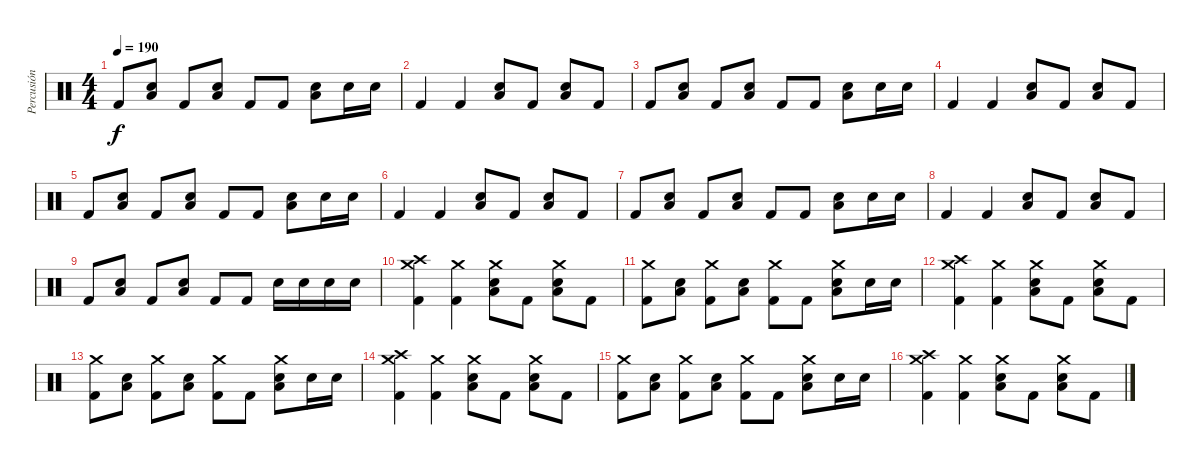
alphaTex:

\track ("Percusión" "Percusión") {instrument percussion}
\staff {score}
\articulation defaults
\ts (4 4)
\tempo 190
\clef neutral
\ks c "Kick (hit) 2".8{dy f}
("Low Tom (hit)" "Snare (hit) 2").8 "Kick (hit) 2".8 ("Low Tom (hit)" "Snare (hit) 2").8 "Kick (hit) 2".8 "Kick (hit) 2".8 ("Low Tom (hit)" "Snare (hit) 2").8 "Snare (hit) 2".16 "Snare (hit) 2".16 |
"Kick (hit) 2".4 "Kick (hit) 2".4 ("Low Tom (hit)" "Snare (hit) 2").8 "Kick (hit) 2".8 ("Low Tom (hit)" "Snare (hit) 2").8 "Kick (hit) 2".8 |
"Kick (hit) 2".8 ("Low Tom (hit)" "Snare (hit) 2").8 "Kick (hit) 2".8 ("Low Tom (hit)" "Snare (hit) 2").8 "Kick (hit) 2".8 "Kick (hit) 2".8 ("Low Tom (hit)" "Snare (hit) 2").8 "Snare (hit) 2".16 "Snare (hit) 2".16 |
"Kick (hit) 2".4 "Kick (hit) 2".4 ("Low Tom (hit)" "Snare (hit) 2").8 "Kick (hit) 2".8 ("Low Tom (hit)" "Snare (hit) 2").8 "Kick (hit) 2".8 |
"Kick (hit) 2".8 ("Low Tom (hit)" "Snare (hit) 2").8 "Kick (hit) 2".8 ("Low Tom (hit)" "Snare (hit) 2").8 "Kick (hit) 2".8 "Kick (hit) 2".8 ("Low Tom (hit)" "Snare (hit) 2").8 "Snare (hit) 2".16 "Snare (hit) 2".16 |
"Kick (hit) 2".4 "Kick (hit) 2".4 ("Low Tom (hit)" "Snare (hit) 2").8 "Kick (hit) 2".8 ("Low Tom (hit)" "Snare (hit) 2").8 "Kick (hit) 2".8 |
"Kick (hit) 2".8 ("Low Tom (hit)" "Snare (hit) 2").8 "Kick (hit) 2".8 ("Low Tom (hit)" "Snare (hit) 2").8 "Kick (hit) 2".8 "Kick (hit) 2".8 ("Low Tom (hit)" "Snare (hit) 2").8 "Snare (hit) 2".16 "Snare (hit) 2".16 |
"Kick (hit) 2".4 "Kick (hit) 2".4 ("Low Tom (hit)" "Snare (hit) 2").8 "Kick (hit) 2".8 ("Low Tom (hit)" "Snare (hit) 2").8 "Kick (hit) 2".8 |
"Kick (hit) 2".8 ("Low Tom (hit)" "Snare (hit) 2").8 "Kick (hit) 2".8 ("Low Tom (hit)" "Snare (hit) 2").8 "Kick (hit) 2".8 "Kick (hit) 2".8 "Snare (hit) 2".16 "Snare (hit) 2".16 "Snare (hit) 2".16 "Snare (hit) 2".16 |
("Crash medium (hit)" "Crash high (hit)" "Kick (hit) 2").4 ("Crash medium (hit)" "Kick (hit) 2").4 ("Crash medium (hit)" "Low Tom (hit)" "Snare (hit) 2").8 "Kick (hit) 2".8 ("Crash medium (hit)" "Low Tom (hit)" "Snare (hit) 2").8 "Kick (hit) 2".8 |
("Crash medium (hit)" "Kick (hit) 2").8 ("Low Tom (hit)" "Snare (hit) 2").8 ("Crash medium (hit)" "Kick (hit) 2").8 ("Low Tom (hit)" "Snare (hit) 2").8 ("Crash medium (hit)" "Kick (hit) 2").8 "Kick (hit) 2".8 ("Crash medium (hit)" "Low Tom (hit)" "Snare (hit) 2").8 "Snare (hit) 2".16 "Snare (hit) 2".16 |
("Crash medium (hit)" "Crash high (hit)" "Kick (hit) 2").4 ("Crash medium (hit)" "Kick (hit) 2").4 ("Crash medium (hit)" "Low Tom (hit)" "Snare (hit) 2").8 "Kick (hit) 2".8 ("Crash medium (hit)" "Low Tom (hit)" "Snare (hit) 2").8 "Kick (hit) 2".8 |
("Crash medium (hit)" "Kick (hit) 2").8 ("Low Tom (hit)" "Snare (hit) 2").8 ("Crash medium (hit)" "Kick (hit) 2").8 ("Low Tom (hit)" "Snare (hit) 2").8 ("Crash medium (hit)" "Kick (hit) 2").8 "Kick (hit) 2".8 ("Crash medium (hit)" "Low Tom (hit)" "Snare (hit) 2").8 "Snare (hit) 2".16 "Snare (hit) 2".16 |
("Crash medium (hit)" "Crash high (hit)" "Kick (hit) 2").4 ("Crash medium (hit)" "Kick (hit) 2").4 ("Crash medium (hit)" "Low Tom (hit)" "Snare (hit) 2").8 "Kick (hit) 2".8 ("Crash medium (hit)" "Low Tom (hit)" "Snare (hit) 2").8 "Kick (hit) 2".8 |
("Crash medium (hit)" "Kick (hit) 2").8 ("Low Tom (hit)" "Snare (hit) 2").8 ("Crash medium (hit)" "Kick (hit) 2").8 ("Low Tom (hit)" "Snare (hit) 2").8 ("Crash medium (hit)" "Kick (hit) 2").8 "Kick (hit) 2".8 ("Crash medium (hit)" "Low Tom (hit)" "Snare (hit) 2").8 "Snare (hit) 2".16 "Snare (hit) 2".16 |
("Crash medium (hit)" "Crash high (hit)" "Kick (hit) 2").4 ("Crash medium (hit)" "Kick (hit) 2").4 ("Crash medium (hit)" "Low Tom (hit)" "Snare (hit) 2").8 "Kick (hit) 2".8 ("Crash medium (hit)" "Low Tom (hit)" "Snare (hit) 2").8 "Kick (hit) 2".8
